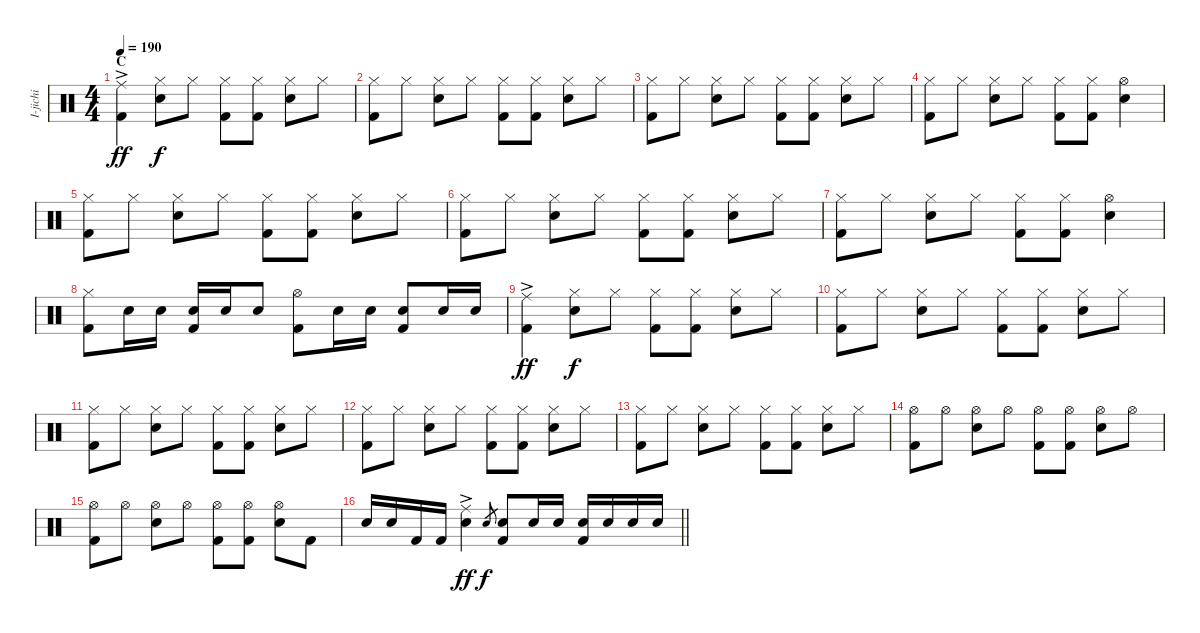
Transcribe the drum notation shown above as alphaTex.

\track ("I-jichi" "I-jichi") {instrument percussion}
\staff {score}
\articulation defaults
\ts (4 4)
\section ("" "C")
\tempo 190
\clef neutral
\ks c
("Ride (middle)"{ac} "Kick (hit) 2").4{dy ff} ("Hi-Hat (closed)" "Snare (hit) 2").8{dy f} "Hi-Hat (closed)".8 ("Hi-Hat (closed)" "Kick (hit) 2").8 ("Hi-Hat (closed)" "Kick (hit) 2").8 ("Hi-Hat (closed)" "Snare (hit) 2").8 "Hi-Hat (closed)".8 |
("Hi-Hat (closed)" "Kick (hit) 2").8 "Hi-Hat (closed)".8 ("Hi-Hat (closed)" "Snare (hit) 2").8 "Hi-Hat (closed)".8 ("Hi-Hat (closed)" "Kick (hit) 2").8 ("Hi-Hat (closed)" "Kick (hit) 2").8 ("Hi-Hat (closed)" "Snare (hit) 2").8 "Hi-Hat (closed)".8 |
("Hi-Hat (closed)" "Kick (hit) 2").8 "Hi-Hat (closed)".8 ("Hi-Hat (closed)" "Snare (hit) 2").8 "Hi-Hat (closed)".8 ("Hi-Hat (closed)" "Kick (hit) 2").8 ("Hi-Hat (closed)" "Kick (hit) 2").8 ("Hi-Hat (closed)" "Snare (hit) 2").8 "Hi-Hat (closed)".8 |
("Hi-Hat (closed)" "Kick (hit) 2").8 "Hi-Hat (closed)".8 ("Hi-Hat (closed)" "Snare (hit) 2").8 "Hi-Hat (closed)".8 ("Hi-Hat (closed)" "Kick (hit) 2").8 ("Hi-Hat (closed)" "Kick (hit) 2").8 ("Hi-Hat (open)" "Snare (hit) 2").4 |
("Hi-Hat (closed)" "Kick (hit) 2").8 "Hi-Hat (closed)".8 ("Hi-Hat (closed)" "Snare (hit) 2").8 "Hi-Hat (closed)".8 ("Hi-Hat (closed)" "Kick (hit) 2").8 ("Hi-Hat (closed)" "Kick (hit) 2").8 ("Hi-Hat (closed)" "Snare (hit) 2").8 "Hi-Hat (closed)".8 |
("Hi-Hat (closed)" "Kick (hit) 2").8 "Hi-Hat (closed)".8 ("Hi-Hat (closed)" "Snare (hit) 2").8 "Hi-Hat (closed)".8 ("Hi-Hat (closed)" "Kick (hit) 2").8 ("Hi-Hat (closed)" "Kick (hit) 2").8 ("Hi-Hat (closed)" "Snare (hit) 2").8 "Hi-Hat (closed)".8 |
("Hi-Hat (closed)" "Kick (hit) 2").8 "Hi-Hat (closed)".8 ("Hi-Hat (closed)" "Snare (hit) 2").8 "Hi-Hat (closed)".8 ("Hi-Hat (closed)" "Kick (hit) 2").8 ("Hi-Hat (closed)" "Kick (hit) 2").8 ("Hi-Hat (open)" "Snare (hit) 2").4 |
("Hi-Hat (closed)" "Kick (hit) 2").8 "Snare (hit) 2".16 "Snare (hit) 2".16 ("Snare (hit) 2" "Kick (hit) 2").16 "Snare (hit) 2".16 "Snare (hit) 2".8 ("Hi-Hat (open)" "Kick (hit) 2").8 "Snare (hit) 2".16 "Snare (hit) 2".16 ("Snare (hit) 2" "Kick (hit) 2").8 "Snare (hit) 2".16 "Snare (hit) 2".16 |
("Ride (middle)"{ac} "Kick (hit) 2").4{dy ff} ("Hi-Hat (closed)" "Snare (hit) 2").8{dy f} "Hi-Hat (closed)".8 ("Hi-Hat (closed)" "Kick (hit) 2").8 ("Hi-Hat (closed)" "Kick (hit) 2").8 ("Hi-Hat (closed)" "Snare (hit) 2").8 "Hi-Hat (closed)".8 |
("Hi-Hat (closed)" "Kick (hit) 2").8 "Hi-Hat (closed)".8 ("Hi-Hat (closed)" "Snare (hit) 2").8 "Hi-Hat (closed)".8 ("Hi-Hat (closed)" "Kick (hit) 2").8 ("Hi-Hat (closed)" "Kick (hit) 2").8 ("Hi-Hat (closed)" "Snare (hit) 2").8 "Hi-Hat (closed)".8 |
("Hi-Hat (closed)" "Kick (hit) 2").8 "Hi-Hat (closed)".8 ("Hi-Hat (closed)" "Snare (hit) 2").8 "Hi-Hat (closed)".8 ("Hi-Hat (closed)" "Kick (hit) 2").8 ("Hi-Hat (closed)" "Kick (hit) 2").8 ("Hi-Hat (closed)" "Snare (hit) 2").8 "Hi-Hat (closed)".8 |
("Hi-Hat (closed)" "Kick (hit) 2").8 "Hi-Hat (closed)".8 ("Hi-Hat (closed)" "Snare (hit) 2").8 "Hi-Hat (closed)".8 ("Hi-Hat (closed)" "Kick (hit) 2").8 ("Hi-Hat (closed)" "Kick (hit) 2").8 ("Hi-Hat (closed)" "Snare (hit) 2").8 "Hi-Hat (closed)".8 |
("Hi-Hat (closed)" "Kick (hit) 2").8 "Hi-Hat (closed)".8 ("Hi-Hat (closed)" "Snare (hit) 2").8 "Hi-Hat (closed)".8 ("Hi-Hat (closed)" "Kick (hit) 2").8 ("Hi-Hat (closed)" "Kick (hit) 2").8 ("Hi-Hat (closed)" "Snare (hit) 2").8 "Hi-Hat (closed)".8 |
("Hi-Hat (open)" "Kick (hit) 2").8 "Hi-Hat (open)".8 ("Hi-Hat (open)" "Snare (hit) 2").8 "Hi-Hat (open)".8 ("Hi-Hat (open)" "Kick (hit) 2").8 ("Hi-Hat (open)" "Kick (hit) 2").8 ("Hi-Hat (open)" "Snare (hit) 2").8 "Hi-Hat (open)".8 |
("Hi-Hat (open)" "Kick (hit) 2").8 "Hi-Hat (open)".8 ("Hi-Hat (open)" "Snare (hit) 2").8 "Hi-Hat (open)".8 ("Hi-Hat (open)" "Kick (hit) 2").8 ("Hi-Hat (open)" "Kick (hit) 2").8 ("Hi-Hat (open)" "Snare (hit) 2").8 "Kick (hit) 2".8 |
\barLineRight lightlight "Snare (hit) 2".16 "Snare (hit) 2".16 "Kick (hit) 2".16 "Kick (hit) 2".16
("Ride (middle)"{ac} "Snare (hit) 2").4{dy ff} "Snare (hit) 2".8{gr dy f} ("Snare (hit) 2" "Kick (hit) 2").8 "Snare (hit) 2".16 "Snare (hit) 2".16 ("Snare (hit) 2" "Kick (hit) 2").16 "Snare (hit) 2".16 "Snare (hit) 2".16 "Snare (hit) 2".16
